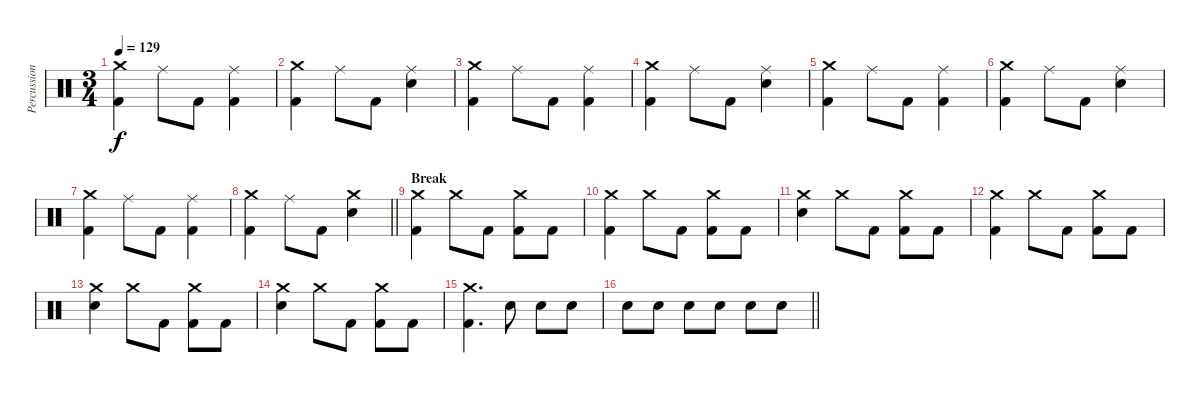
\track ("Percussion" "Percussion") {instrument percussion}
\staff {score}
\articulation defaults
\ts (3 4)
\tempo 129
\clef neutral
\ks c
("Crash medium (hit)" "Kick (hit) 2").4{dy f} "Ride (middle)".8 "Kick (hit) 2".8 ("Ride (middle)" "Kick (hit) 2").4 |
("Crash medium (hit)" "Kick (hit) 2").4 "Ride (middle)".8 "Kick (hit) 2".8 ("Ride (middle)" "Electric Snare (hit)").4 |
("Crash medium (hit)" "Kick (hit) 2").4 "Ride (middle)".8 "Kick (hit) 2".8 ("Ride (middle)" "Kick (hit) 2").4 |
("Crash medium (hit)" "Kick (hit) 2").4 "Ride (middle)".8 "Kick (hit) 2".8 ("Ride (middle)" "Electric Snare (hit)").4 |
("Crash medium (hit)" "Kick (hit) 2").4 "Ride (middle)".8 "Kick (hit) 2".8 ("Ride (middle)" "Kick (hit) 2").4 |
("Crash medium (hit)" "Kick (hit) 2").4 "Ride (middle)".8 "Kick (hit) 2".8 ("Ride (middle)" "Electric Snare (hit)").4 |
("Crash medium (hit)" "Kick (hit) 2").4 "Ride (middle)".8 "Kick (hit) 2".8 ("Ride (middle)" "Kick (hit) 2").4 |
\barLineRight lightlight
("Crash medium (hit)" "Kick (hit) 2").4 "Ride (middle)".8 "Kick (hit) 2".8 ("Crash medium (hit)" "Electric Snare (hit)").4 |
\section ("" "Break")
("Crash medium (hit)" "Kick (hit) 2").4 "Crash medium (hit)".8 "Kick (hit) 2".8 ("Crash medium (hit)" "Kick (hit) 2").8 "Kick (hit) 2".8 |
("Crash medium (hit)" "Kick (hit) 2").4 "Crash medium (hit)".8 "Kick (hit) 2".8 ("Crash medium (hit)" "Kick (hit) 2").8 "Kick (hit) 2".8 |
("Crash medium (hit)" "Electric Snare (hit)").4 "Crash medium (hit)".8 "Kick (hit) 2".8 ("Crash medium (hit)" "Kick (hit) 2").8 "Kick (hit) 2".8 |
("Crash medium (hit)" "Kick (hit) 2").4 "Crash medium (hit)".8 "Kick (hit) 2".8 ("Crash medium (hit)" "Kick (hit) 2").8 "Kick (hit) 2".8 |
("Crash medium (hit)" "Electric Snare (hit)").4 "Crash medium (hit)".8 "Kick (hit) 2".8 ("Crash medium (hit)" "Kick (hit) 2").8 "Kick (hit) 2".8 |
("Crash medium (hit)" "Electric Snare (hit)").4 "Crash medium (hit)".8 "Kick (hit) 2".8 ("Crash medium (hit)" "Kick (hit) 2").8 "Kick (hit) 2".8 |
("Crash medium (hit)" "Kick (hit) 2").4{d} "Electric Snare (hit)".8 "Electric Snare (hit)".8 "Electric Snare (hit)".8 |
\barLineRight lightlight "Electric Snare (hit)".8 "Electric Snare (hit)".8 "Electric Snare (hit)".8 "Electric Snare (hit)".8 "Electric Snare (hit)".8 "Electric Snare (hit)".8
